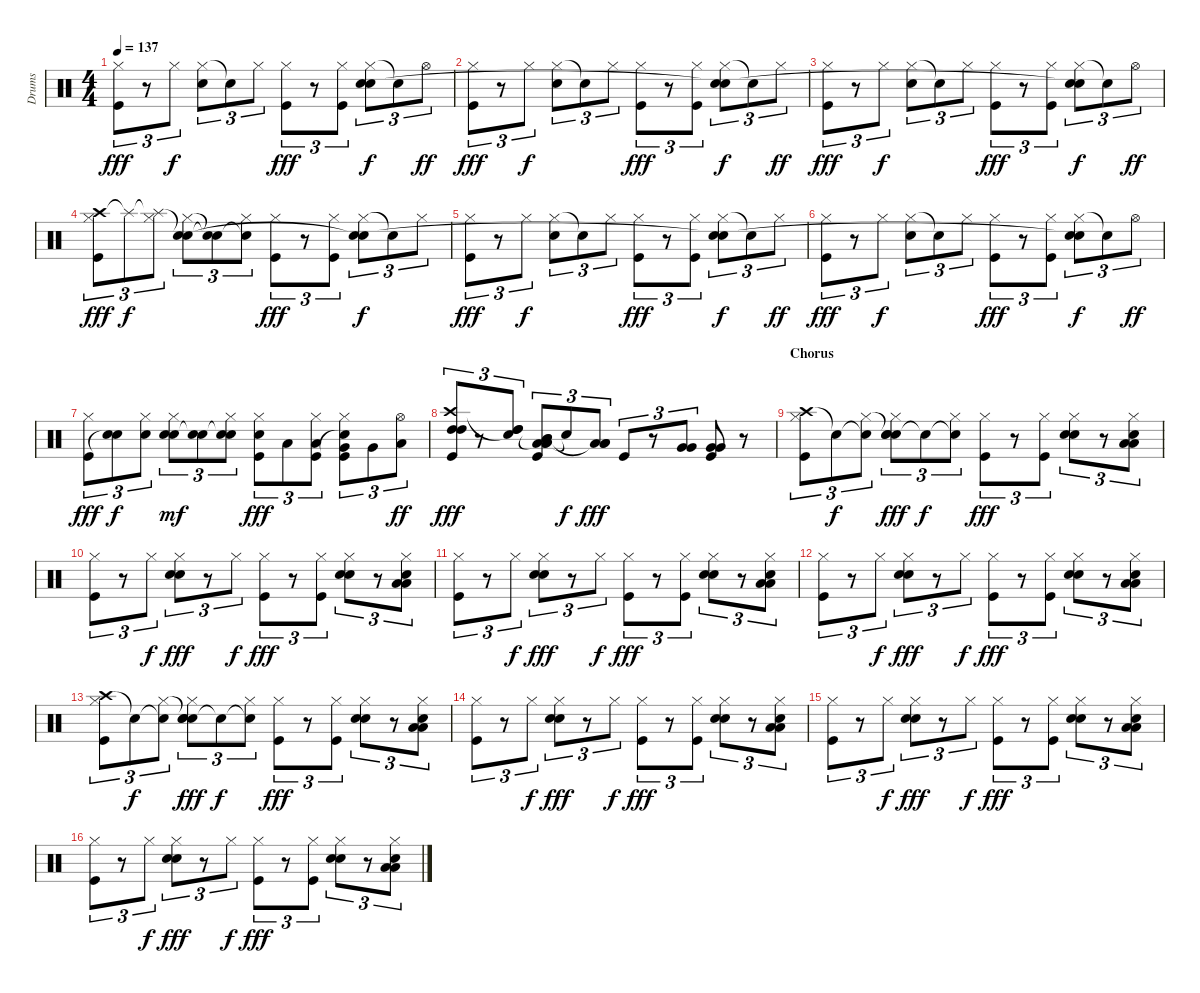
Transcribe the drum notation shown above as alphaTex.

\track ("Drums" "Drums") {instrument percussion}
\staff {score}
\articulation defaults
\ts (4 4)
\tempo 137
\clef neutral
\ks c
("Hi-Hat (closed)" "Kick (hit)").8{tu (3 2) dy fff} r.8{tu (3 2)} "Hi-Hat (closed)".8{tu (3 2) dy f} ("Hi-Hat (closed)" "Electric Snare (hit)").8{tu (3 2)} "Electric Snare (hit)"{t}.8{tu (3 2)} "Hi-Hat (closed)".8{tu (3 2)} ("Hi-Hat (closed)" "Kick (hit)").8{tu (3 2) dy fff} r.8{tu (3 2)} ("Hi-Hat (closed)" "Kick (hit)").8{tu (3 2)} ("Hi-Hat (closed)" "Electric Snare (hit)" "Snare (hit)"{t}).8{tu (3 2) dy f} "Snare (hit)"{t}.8{tu (3 2)} "Hi-Hat (open)".8{tu (3 2) dy ff} |
("Hi-Hat (closed)" "Kick (hit)").8{tu (3 2) dy fff} r.8{tu (3 2)} "Hi-Hat (closed)".8{tu (3 2) dy f} ("Hi-Hat (closed)" "Electric Snare (hit)").8{tu (3 2)} "Electric Snare (hit)"{t}.8{tu (3 2)} "Hi-Hat (closed)".8{tu (3 2)} ("Hi-Hat (closed)" "Kick (hit)").8{tu (3 2) dy fff} r.8{tu (3 2)} ("Hi-Hat (closed)" "Kick (hit)").8{tu (3 2)} ("Hi-Hat (closed)" "Electric Snare (hit)" "Snare (hit)"{t}).8{tu (3 2) dy f} "Snare (hit)"{t}.8{tu (3 2)} "Hi-Hat (closed)".8{tu (3 2) dy ff} |
("Hi-Hat (closed)" "Kick (hit)").8{tu (3 2) dy fff} r.8{tu (3 2)} "Hi-Hat (closed)".8{tu (3 2) dy f} ("Hi-Hat (closed)" "Electric Snare (hit)").8{tu (3 2)} "Electric Snare (hit)"{t}.8{tu (3 2)} "Hi-Hat (closed)".8{tu (3 2)} ("Hi-Hat (closed)" "Kick (hit)").8{tu (3 2) dy fff} r.8{tu (3 2)} ("Hi-Hat (closed)" "Kick (hit)").8{tu (3 2)} ("Hi-Hat (closed)" "Electric Snare (hit)" "Snare (hit)"{t}).8{tu (3 2) dy f} "Snare (hit)"{t}.8{tu (3 2)} "Hi-Hat (open)".8{tu (3 2) dy ff} |
("Crash high (hit)" "Hi-Hat (closed)" "Kick (hit)").8{tu (3 2) dy fff} "Splash (hit)"{t}.8{tu (3 2) dy f} ("Splash (hit)"{t} "Hi-Hat (closed)").8{tu (3 2)} ("Snare (hit)"{t} "Hi-Hat (closed)" "Electric Snare (hit)").8{tu (3 2)} ("Snare (hit)"{t} "Electric Snare (hit)"{t}).8{tu (3 2)} ("Snare (hit)"{t} "Hi-Hat (closed)").8{tu (3 2)} ("Hi-Hat (closed)" "Kick (hit)").8{tu (3 2) dy fff} r.8{tu (3 2)} ("Hi-Hat (closed)" "Kick (hit)").8{tu (3 2)} ("Hi-Hat (closed)" "Electric Snare (hit)" "Snare (hit)"{t}).8{tu (3 2) dy f} "Snare (hit)"{t}.8{tu (3 2)} "Hi-Hat (closed)".8{tu (3 2)} |
("Hi-Hat (closed)" "Kick (hit)").8{tu (3 2) dy fff} r.8{tu (3 2)} "Hi-Hat (closed)".8{tu (3 2) dy f} ("Hi-Hat (closed)" "Electric Snare (hit)").8{tu (3 2)} "Electric Snare (hit)"{t}.8{tu (3 2)} "Hi-Hat (closed)".8{tu (3 2)} ("Hi-Hat (closed)" "Kick (hit)").8{tu (3 2) dy fff} r.8{tu (3 2)} ("Hi-Hat (closed)" "Kick (hit)").8{tu (3 2)} ("Hi-Hat (closed)" "Electric Snare (hit)" "Snare (hit)"{t}).8{tu (3 2) dy f} "Snare (hit)"{t}.8{tu (3 2)} "Hi-Hat (closed)".8{tu (3 2) dy ff} |
("Hi-Hat (closed)" "Kick (hit)").8{tu (3 2) dy fff} r.8{tu (3 2)} "Hi-Hat (closed)".8{tu (3 2) dy f} ("Hi-Hat (closed)" "Electric Snare (hit)").8{tu (3 2)} "Electric Snare (hit)"{t}.8{tu (3 2)} "Hi-Hat (closed)".8{tu (3 2)} ("Hi-Hat (closed)" "Kick (hit)").8{tu (3 2) dy fff} r.8{tu (3 2)} ("Hi-Hat (closed)" "Kick (hit)").8{tu (3 2)} ("Hi-Hat (closed)" "Electric Snare (hit)" "Snare (hit)"{t}).8{tu (3 2) dy f} "Snare (hit)"{t}.8{tu (3 2)} "Hi-Hat (open)".8{tu (3 2) dy ff} |
("Hi-Hat (closed)" "Kick (hit)").8{tu (3 2) dy fff} ("Electric Snare (hit)" "Snare (hit)"{t}).8{tu (3 2) dy f} ("Hi-Hat (closed)" "Electric Snare (hit)").8{tu (3 2)} ("Hand Clap (hit)" "Hi-Hat (closed)" "Electric Snare (hit)").8{tu (3 2) dy mf} ("Snare (hit)"{t} "Electric Snare (hit)").8{tu (3 2)} ("Snare (hit)"{t} "Hi-Hat (closed)" "Electric Snare (hit)").8{tu (3 2)} ("Hi-Hat (closed)" "Electric Snare (hit)" "Kick (hit)").8{tu (3 2) dy fff} "Low Tom (hit)".8{tu (3 2)} ("Hi-Hat (closed)" "Low Tom (hit)" "Kick (hit)").8{tu (3 2)} ("Very Low Tom (hit)" "Hi-Hat (closed)" "Electric Snare (hit)"{t} "Kick (hit)").8{tu (3 2)} "Very Low Tom (hit)".8{tu (3 2)} ("Low Floor Tom (hit)" "Hi-Hat (open)").8{tu (3 2) dy ff} |
("High Tom (hit)" "Crash high (hit)" "High Tom (hit)" "Kick (hit)").8{tu (3 2) dy fff} r.8{tu (3 2)} ("High Tom (hit)" "Snare (hit)"{t} "High Tom (hit)").8{tu (3 2)} ("Low Tom (hit)" "Mid Tom (hit)" "Low Tom (hit)"{t} "Mid Tom (hit)" "Low Tom (hit)" "Kick (hit)").8{tu (3 2)} "Snare (hit)"{t}.8{tu (3 2) dy f} ("Low Tom (hit)" "Low Tom (hit)"{t} "Low Tom (hit)").8{tu (3 2) dy fff} "Kick (hit)".8{tu (3 2)} r.8{tu (3 2)} ("Very Low Tom (hit)" "Very Low Tom (hit)").8{tu (3 2)} ("Very Low Tom (hit)" "Very Low Tom (hit)" "Kick (hit)").8 r.8 |
\section ("" "Chorus")
("Crash high (hit)" "Hi-Hat (closed)" "Kick (hit)").8{tu (3 2)} "Snare (hit)"{t}.8{tu (3 2) dy f} ("Snare (hit)"{t} "Hi-Hat (closed)").8{tu (3 2)} ("Hand Clap (hit)" "Hand Clap (hit)"{t} "Hi-Hat (closed)" "Electric Snare (hit)").8{tu (3 2) dy fff} "Snare (hit)"{t}.8{tu (3 2) dy f} ("Snare (hit)"{t} "Hi-Hat (closed)").8{tu (3 2)} ("Hi-Hat (closed)" "Kick (hit)").8{tu (3 2) dy fff} r.8{tu (3 2)} ("Hi-Hat (closed)" "Kick (hit)").8{tu (3 2)} ("Hand Clap (hit)" "Hi-Hat (closed)" "Electric Snare (hit)").8{tu (3 2)} r.8{tu (3 2)} ("Low Tom (hit)" "Low Floor Tom (hit)" "Hi-Hat (closed)" "Electric Snare (hit)").8{tu (3 2)} |
("Hi-Hat (closed)" "Kick (hit)").8{tu (3 2)} r.8{tu (3 2)} "Hi-Hat (closed)".8{tu (3 2) dy f} ("Hand Clap (hit)" "Hi-Hat (closed)" "Electric Snare (hit)").8{tu (3 2) dy fff} r.8{tu (3 2)} "Hi-Hat (closed)".8{tu (3 2) dy f} ("Hi-Hat (closed)" "Kick (hit)").8{tu (3 2) dy fff} r.8{tu (3 2)} ("Hi-Hat (closed)" "Kick (hit)").8{tu (3 2)} ("Hand Clap (hit)" "Hi-Hat (closed)" "Electric Snare (hit)").8{tu (3 2)} r.8{tu (3 2)} ("Low Tom (hit)" "Low Floor Tom (hit)" "Hi-Hat (closed)" "Electric Snare (hit)").8{tu (3 2)} |
("Hi-Hat (closed)" "Kick (hit)").8{tu (3 2)} r.8{tu (3 2)} "Hi-Hat (closed)".8{tu (3 2) dy f} ("Hand Clap (hit)" "Hi-Hat (closed)" "Electric Snare (hit)").8{tu (3 2) dy fff} r.8{tu (3 2)} "Hi-Hat (closed)".8{tu (3 2) dy f} ("Hi-Hat (closed)" "Kick (hit)").8{tu (3 2) dy fff} r.8{tu (3 2)} ("Hi-Hat (closed)" "Kick (hit)").8{tu (3 2)} ("Hand Clap (hit)" "Hi-Hat (closed)" "Electric Snare (hit)").8{tu (3 2)} r.8{tu (3 2)} ("Low Tom (hit)" "Low Floor Tom (hit)" "Hi-Hat (closed)" "Electric Snare (hit)").8{tu (3 2)} |
("Hi-Hat (closed)" "Kick (hit)").8{tu (3 2)} r.8{tu (3 2)} "Hi-Hat (closed)".8{tu (3 2) dy f} ("Hand Clap (hit)" "Hi-Hat (closed)" "Electric Snare (hit)").8{tu (3 2) dy fff} r.8{tu (3 2)} "Hi-Hat (closed)".8{tu (3 2) dy f} ("Hi-Hat (closed)" "Kick (hit)").8{tu (3 2) dy fff} r.8{tu (3 2)} ("Hi-Hat (closed)" "Kick (hit)").8{tu (3 2)} ("Hand Clap (hit)" "Hi-Hat (closed)" "Electric Snare (hit)").8{tu (3 2)} r.8{tu (3 2)} ("Low Tom (hit)" "Low Floor Tom (hit)" "Hi-Hat (closed)" "Electric Snare (hit)").8{tu (3 2)} |
("Crash high (hit)" "Hi-Hat (closed)" "Kick (hit)").8{tu (3 2)} "Snare (hit)"{t}.8{tu (3 2) dy f} ("Snare (hit)"{t} "Hi-Hat (closed)").8{tu (3 2)} ("Hand Clap (hit)" "Hand Clap (hit)"{t} "Hi-Hat (closed)" "Electric Snare (hit)").8{tu (3 2) dy fff} "Snare (hit)"{t}.8{tu (3 2) dy f} ("Snare (hit)"{t} "Hi-Hat (closed)").8{tu (3 2)} ("Hi-Hat (closed)" "Kick (hit)").8{tu (3 2) dy fff} r.8{tu (3 2)} ("Hi-Hat (closed)" "Kick (hit)").8{tu (3 2)} ("Hand Clap (hit)" "Hi-Hat (closed)" "Electric Snare (hit)").8{tu (3 2)} r.8{tu (3 2)} ("Low Tom (hit)" "Low Floor Tom (hit)" "Hi-Hat (closed)" "Electric Snare (hit)").8{tu (3 2)} |
("Hi-Hat (closed)" "Kick (hit)").8{tu (3 2)} r.8{tu (3 2)} "Hi-Hat (closed)".8{tu (3 2) dy f} ("Hand Clap (hit)" "Hi-Hat (closed)" "Electric Snare (hit)").8{tu (3 2) dy fff} r.8{tu (3 2)} "Hi-Hat (closed)".8{tu (3 2) dy f} ("Hi-Hat (closed)" "Kick (hit)").8{tu (3 2) dy fff} r.8{tu (3 2)} ("Hi-Hat (closed)" "Kick (hit)").8{tu (3 2)} ("Hand Clap (hit)" "Hi-Hat (closed)" "Electric Snare (hit)").8{tu (3 2)} r.8{tu (3 2)} ("Low Tom (hit)" "Low Floor Tom (hit)" "Hi-Hat (closed)" "Electric Snare (hit)").8{tu (3 2)} |
("Hi-Hat (closed)" "Kick (hit)").8{tu (3 2)} r.8{tu (3 2)} "Hi-Hat (closed)".8{tu (3 2) dy f} ("Hand Clap (hit)" "Hi-Hat (closed)" "Electric Snare (hit)").8{tu (3 2) dy fff} r.8{tu (3 2)} "Hi-Hat (closed)".8{tu (3 2) dy f} ("Hi-Hat (closed)" "Kick (hit)").8{tu (3 2) dy fff} r.8{tu (3 2)} ("Hi-Hat (closed)" "Kick (hit)").8{tu (3 2)} ("Hand Clap (hit)" "Hi-Hat (closed)" "Electric Snare (hit)").8{tu (3 2)} r.8{tu (3 2)} ("Low Tom (hit)" "Low Floor Tom (hit)" "Hi-Hat (closed)" "Electric Snare (hit)").8{tu (3 2)} |
("Hi-Hat (closed)" "Kick (hit)").8{tu (3 2)} r.8{tu (3 2)} "Hi-Hat (closed)".8{tu (3 2) dy f} ("Hand Clap (hit)" "Hi-Hat (closed)" "Electric Snare (hit)").8{tu (3 2) dy fff} r.8{tu (3 2)} "Hi-Hat (closed)".8{tu (3 2) dy f} ("Hi-Hat (closed)" "Kick (hit)").8{tu (3 2) dy fff} r.8{tu (3 2)} ("Hi-Hat (closed)" "Kick (hit)").8{tu (3 2)} ("Hand Clap (hit)" "Hi-Hat (closed)" "Electric Snare (hit)").8{tu (3 2)} r.8{tu (3 2)} ("Low Tom (hit)" "Low Floor Tom (hit)" "Hi-Hat (closed)" "Electric Snare (hit)").8{tu (3 2)}
